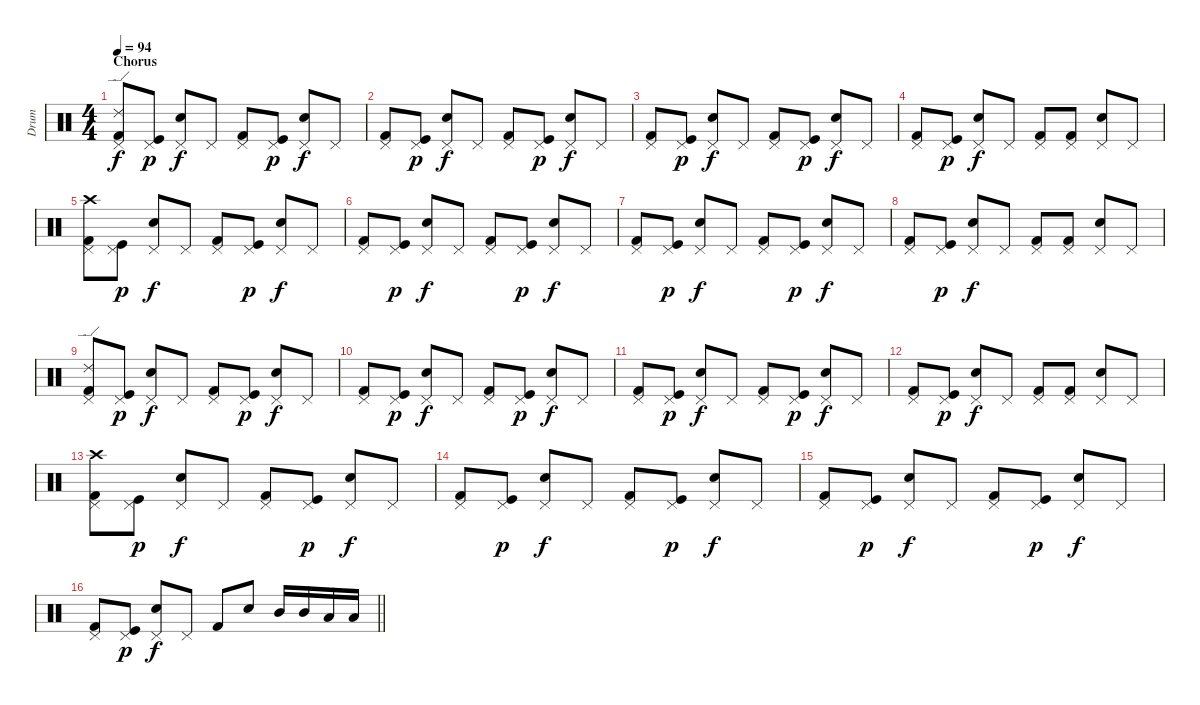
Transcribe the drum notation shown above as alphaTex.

\track ("Drum" "Drum") {instrument percussion}
\staff {score}
\articulation defaults
\ts (4 4)
\section ("" "Chorus")
\tempo 94
\clef neutral
\ks c
("Ride (edge) 2" "Kick (hit) 2" "Pedal Hi-Hat (hit)").8{dy f} ("Kick (hit)" "Pedal Hi-Hat (hit)").8{dy p} ("Snare (hit) 2" "Pedal Hi-Hat (hit)").8{dy f} "Pedal Hi-Hat (hit)".8 ("Kick (hit) 2" "Pedal Hi-Hat (hit)").8 ("Kick (hit)" "Pedal Hi-Hat (hit)").8{dy p} ("Snare (hit) 2" "Pedal Hi-Hat (hit)").8{dy f} "Pedal Hi-Hat (hit)".8 |
("Kick (hit) 2" "Pedal Hi-Hat (hit)").8 ("Kick (hit)" "Pedal Hi-Hat (hit)").8{dy p} ("Snare (hit) 2" "Pedal Hi-Hat (hit)").8{dy f} "Pedal Hi-Hat (hit)".8 ("Kick (hit) 2" "Pedal Hi-Hat (hit)").8 ("Kick (hit)" "Pedal Hi-Hat (hit)").8{dy p} ("Snare (hit) 2" "Pedal Hi-Hat (hit)").8{dy f} "Pedal Hi-Hat (hit)".8 |
("Kick (hit) 2" "Pedal Hi-Hat (hit)").8 ("Kick (hit)" "Pedal Hi-Hat (hit)").8{dy p} ("Snare (hit) 2" "Pedal Hi-Hat (hit)").8{dy f} "Pedal Hi-Hat (hit)".8 ("Kick (hit) 2" "Pedal Hi-Hat (hit)").8 ("Kick (hit)" "Pedal Hi-Hat (hit)").8{dy p} ("Snare (hit) 2" "Pedal Hi-Hat (hit)").8{dy f} "Pedal Hi-Hat (hit)".8 |
("Kick (hit) 2" "Pedal Hi-Hat (hit)").8 ("Kick (hit)" "Pedal Hi-Hat (hit)").8{dy p} ("Snare (hit) 2" "Pedal Hi-Hat (hit)").8{dy f} "Pedal Hi-Hat (hit)".8 ("Kick (hit) 2" "Pedal Hi-Hat (hit)").8 ("Kick (hit) 2" "Pedal Hi-Hat (hit)").8 ("Snare (hit) 2" "Pedal Hi-Hat (hit)").8 "Pedal Hi-Hat (hit)".8 |
("Crash high (hit)" "Kick (hit) 2" "Pedal Hi-Hat (hit)").8 ("Kick (hit)" "Pedal Hi-Hat (hit)").8{dy p} ("Snare (hit) 2" "Pedal Hi-Hat (hit)").8{dy f} "Pedal Hi-Hat (hit)".8 ("Kick (hit) 2" "Pedal Hi-Hat (hit)").8 ("Kick (hit)" "Pedal Hi-Hat (hit)").8{dy p} ("Snare (hit) 2" "Pedal Hi-Hat (hit)").8{dy f} "Pedal Hi-Hat (hit)".8 |
("Kick (hit) 2" "Pedal Hi-Hat (hit)").8 ("Kick (hit)" "Pedal Hi-Hat (hit)").8{dy p} ("Snare (hit) 2" "Pedal Hi-Hat (hit)").8{dy f} "Pedal Hi-Hat (hit)".8 ("Kick (hit) 2" "Pedal Hi-Hat (hit)").8 ("Kick (hit)" "Pedal Hi-Hat (hit)").8{dy p} ("Snare (hit) 2" "Pedal Hi-Hat (hit)").8{dy f} "Pedal Hi-Hat (hit)".8 |
("Kick (hit) 2" "Pedal Hi-Hat (hit)").8 ("Kick (hit)" "Pedal Hi-Hat (hit)").8{dy p} ("Snare (hit) 2" "Pedal Hi-Hat (hit)").8{dy f} "Pedal Hi-Hat (hit)".8 ("Kick (hit) 2" "Pedal Hi-Hat (hit)").8 ("Kick (hit)" "Pedal Hi-Hat (hit)").8{dy p} ("Snare (hit) 2" "Pedal Hi-Hat (hit)").8{dy f} "Pedal Hi-Hat (hit)".8 |
("Kick (hit) 2" "Pedal Hi-Hat (hit)").8 ("Kick (hit)" "Pedal Hi-Hat (hit)").8{dy p} ("Snare (hit) 2" "Pedal Hi-Hat (hit)").8{dy f} "Pedal Hi-Hat (hit)".8 ("Kick (hit) 2" "Pedal Hi-Hat (hit)").8 ("Kick (hit) 2" "Pedal Hi-Hat (hit)").8 ("Snare (hit) 2" "Pedal Hi-Hat (hit)").8 "Pedal Hi-Hat (hit)".8 |
("Ride (edge) 2" "Kick (hit) 2" "Pedal Hi-Hat (hit)").8 ("Kick (hit)" "Pedal Hi-Hat (hit)").8{dy p} ("Snare (hit) 2" "Pedal Hi-Hat (hit)").8{dy f} "Pedal Hi-Hat (hit)".8 ("Kick (hit) 2" "Pedal Hi-Hat (hit)").8 ("Kick (hit)" "Pedal Hi-Hat (hit)").8{dy p} ("Snare (hit) 2" "Pedal Hi-Hat (hit)").8{dy f} "Pedal Hi-Hat (hit)".8 |
("Kick (hit) 2" "Pedal Hi-Hat (hit)").8 ("Kick (hit)" "Pedal Hi-Hat (hit)").8{dy p} ("Snare (hit) 2" "Pedal Hi-Hat (hit)").8{dy f} "Pedal Hi-Hat (hit)".8 ("Kick (hit) 2" "Pedal Hi-Hat (hit)").8 ("Kick (hit)" "Pedal Hi-Hat (hit)").8{dy p} ("Snare (hit) 2" "Pedal Hi-Hat (hit)").8{dy f} "Pedal Hi-Hat (hit)".8 |
("Kick (hit) 2" "Pedal Hi-Hat (hit)").8 ("Kick (hit)" "Pedal Hi-Hat (hit)").8{dy p} ("Snare (hit) 2" "Pedal Hi-Hat (hit)").8{dy f} "Pedal Hi-Hat (hit)".8 ("Kick (hit) 2" "Pedal Hi-Hat (hit)").8 ("Kick (hit)" "Pedal Hi-Hat (hit)").8{dy p} ("Snare (hit) 2" "Pedal Hi-Hat (hit)").8{dy f} "Pedal Hi-Hat (hit)".8 |
("Kick (hit) 2" "Pedal Hi-Hat (hit)").8 ("Kick (hit)" "Pedal Hi-Hat (hit)").8{dy p} ("Snare (hit) 2" "Pedal Hi-Hat (hit)").8{dy f} "Pedal Hi-Hat (hit)".8 ("Kick (hit) 2" "Pedal Hi-Hat (hit)").8 ("Kick (hit) 2" "Pedal Hi-Hat (hit)").8 ("Snare (hit) 2" "Pedal Hi-Hat (hit)").8 "Pedal Hi-Hat (hit)".8 |
("Crash high (hit)" "Kick (hit) 2" "Pedal Hi-Hat (hit)").8 ("Kick (hit)" "Pedal Hi-Hat (hit)").8{dy p} ("Snare (hit) 2" "Pedal Hi-Hat (hit)").8{dy f} "Pedal Hi-Hat (hit)".8 ("Kick (hit) 2" "Pedal Hi-Hat (hit)").8 ("Kick (hit)" "Pedal Hi-Hat (hit)").8{dy p} ("Snare (hit) 2" "Pedal Hi-Hat (hit)").8{dy f} "Pedal Hi-Hat (hit)".8 |
("Kick (hit) 2" "Pedal Hi-Hat (hit)").8 ("Kick (hit)" "Pedal Hi-Hat (hit)").8{dy p} ("Snare (hit) 2" "Pedal Hi-Hat (hit)").8{dy f} "Pedal Hi-Hat (hit)".8 ("Kick (hit) 2" "Pedal Hi-Hat (hit)").8 ("Kick (hit)" "Pedal Hi-Hat (hit)").8{dy p} ("Snare (hit) 2" "Pedal Hi-Hat (hit)").8{dy f} "Pedal Hi-Hat (hit)".8 |
("Kick (hit) 2" "Pedal Hi-Hat (hit)").8 ("Kick (hit)" "Pedal Hi-Hat (hit)").8{dy p} ("Snare (hit) 2" "Pedal Hi-Hat (hit)").8{dy f} "Pedal Hi-Hat (hit)".8 ("Kick (hit) 2" "Pedal Hi-Hat (hit)").8 ("Kick (hit)" "Pedal Hi-Hat (hit)").8{dy p} ("Snare (hit) 2" "Pedal Hi-Hat (hit)").8{dy f} "Pedal Hi-Hat (hit)".8 |
\barLineRight lightlight
("Kick (hit) 2" "Pedal Hi-Hat (hit)").8 ("Kick (hit)" "Pedal Hi-Hat (hit)").8{dy p} ("Snare (hit) 2" "Pedal Hi-Hat (hit)").8{dy f} "Pedal Hi-Hat (hit)".8 "Kick (hit) 2".8 "Snare (hit) 2".8 "Mid Tom (hit)".16 "Mid Tom (hit)".16 "Low Tom (hit)".16 "Low Tom (hit)".16
